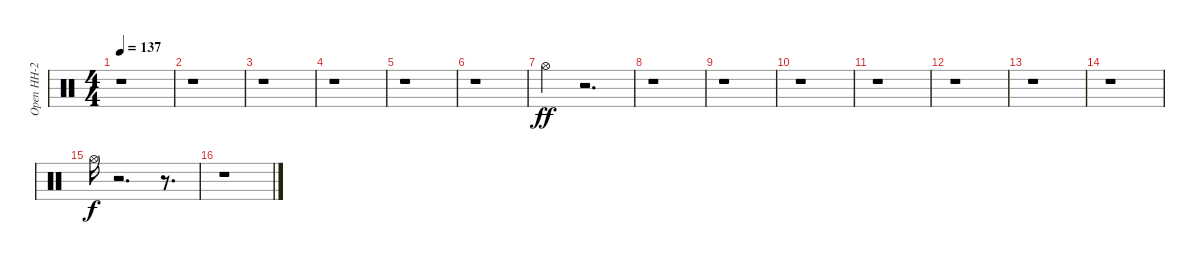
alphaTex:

\track ("Open HH-2" "Open HH-2") {instrument percussion}
\staff {score}
\articulation defaults
\ts (4 4)
\tempo 137
\clef neutral
\ks c
r.1{dy ff} |
r.1 |
r.1 |
r.1 |
r.1 |
r.1 |
"Hi-Hat (open)".4 r.2{d} |
r.1 |
r.1 |
r.1 |
r.1 |
r.1 |
r.1 |
r.1 |
"Hi-Hat (open)".16{dy f} r.2{d} r.8{d} |
r.1
